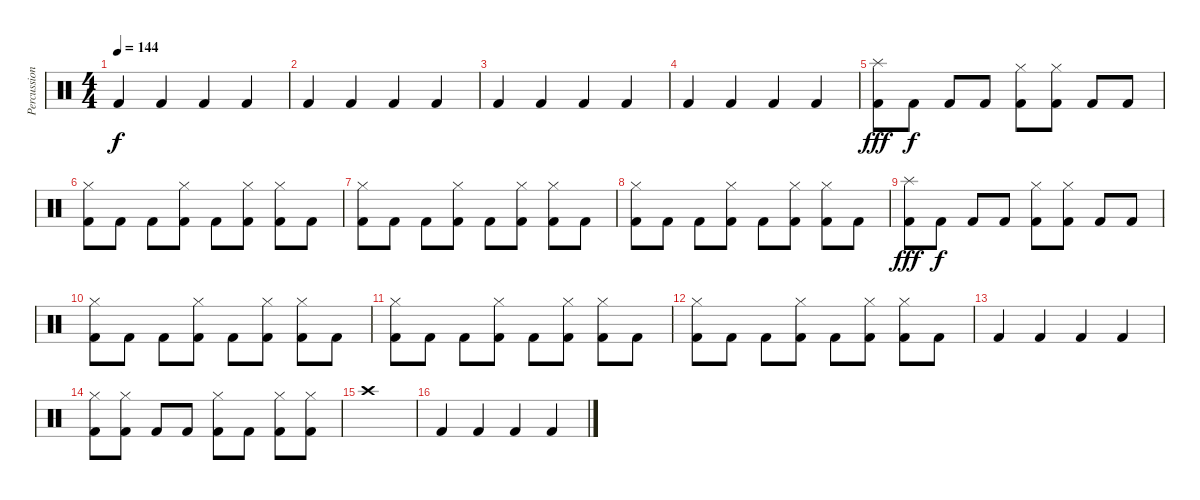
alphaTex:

\track ("Percussion" "Percussion") {instrument percussion}
\staff {score}
\articulation defaults
\ts (4 4)
\tempo 144
\clef neutral
\ks c "Kick (hit) 2".4{dy f} "Kick (hit) 2".4 "Kick (hit) 2".4 "Kick (hit) 2".4
|
"Kick (hit) 2".4 "Kick (hit) 2".4 "Kick (hit) 2".4 "Kick (hit) 2".4 |
"Kick (hit) 2".4 "Kick (hit) 2".4 "Kick (hit) 2".4 "Kick (hit) 2".4 |
"Kick (hit) 2".4 "Kick (hit) 2".4 "Kick (hit) 2".4 "Kick (hit) 2".4 |
("Splash (hit)" "Kick (hit) 2").8{dy fff} "Kick (hit) 2".8{dy f} "Kick (hit) 2".8 "Kick (hit) 2".8 ("Hi-Hat (closed)" "Kick (hit) 2").8 ("Hi-Hat (closed)" "Kick (hit) 2").8 "Kick (hit) 2".8 "Kick (hit) 2".8 |
("Hi-Hat (closed)" "Kick (hit) 2").8 "Kick (hit) 2".8 "Kick (hit) 2".8 ("Hi-Hat (closed)" "Kick (hit) 2").8 "Kick (hit) 2".8 ("Hi-Hat (closed)" "Kick (hit) 2").8 ("Hi-Hat (closed)" "Kick (hit) 2").8 "Kick (hit) 2".8 |
("Hi-Hat (closed)" "Kick (hit) 2").8 "Kick (hit) 2".8 "Kick (hit) 2".8 ("Hi-Hat (closed)" "Kick (hit) 2").8 "Kick (hit) 2".8 ("Hi-Hat (closed)" "Kick (hit) 2").8 ("Hi-Hat (closed)" "Kick (hit) 2").8 "Kick (hit) 2".8 |
("Hi-Hat (closed)" "Kick (hit) 2").8 "Kick (hit) 2".8 "Kick (hit) 2".8 ("Hi-Hat (closed)" "Kick (hit) 2").8 "Kick (hit) 2".8 ("Hi-Hat (closed)" "Kick (hit) 2").8 ("Hi-Hat (closed)" "Kick (hit) 2").8 "Kick (hit) 2".8 |
("Splash (hit)" "Kick (hit) 2").8{dy fff} "Kick (hit) 2".8{dy f} "Kick (hit) 2".8 "Kick (hit) 2".8 ("Hi-Hat (closed)" "Kick (hit) 2").8 ("Hi-Hat (closed)" "Kick (hit) 2").8 "Kick (hit) 2".8 "Kick (hit) 2".8 |
("Hi-Hat (closed)" "Kick (hit) 2").8 "Kick (hit) 2".8 "Kick (hit) 2".8 ("Hi-Hat (closed)" "Kick (hit) 2").8 "Kick (hit) 2".8 ("Hi-Hat (closed)" "Kick (hit) 2").8 ("Hi-Hat (closed)" "Kick (hit) 2").8 "Kick (hit) 2".8 |
("Hi-Hat (closed)" "Kick (hit) 2").8 "Kick (hit) 2".8 "Kick (hit) 2".8 ("Hi-Hat (closed)" "Kick (hit) 2").8 "Kick (hit) 2".8 ("Hi-Hat (closed)" "Kick (hit) 2").8 ("Hi-Hat (closed)" "Kick (hit) 2").8 "Kick (hit) 2".8 |
("Hi-Hat (closed)" "Kick (hit) 2").8 "Kick (hit) 2".8 "Kick (hit) 2".8 ("Hi-Hat (closed)" "Kick (hit) 2").8 "Kick (hit) 2".8 ("Hi-Hat (closed)" "Kick (hit) 2").8 ("Hi-Hat (closed)" "Kick (hit) 2").8 "Kick (hit) 2".8 |
"Kick (hit) 2".4 "Kick (hit) 2".4 "Kick (hit) 2".4 "Kick (hit) 2".4 |
("Hi-Hat (closed)" "Kick (hit) 2").8 ("Hi-Hat (closed)" "Kick (hit) 2").8 "Kick (hit) 2".8 "Kick (hit) 2".8 ("Hi-Hat (closed)" "Kick (hit) 2").8 "Kick (hit) 2".8 ("Hi-Hat (closed)" "Kick (hit) 2").8 ("Hi-Hat (closed)" "Kick (hit) 2").8 |
"Crash high (hit)".1 |
"Kick (hit) 2".4 "Kick (hit) 2".4 "Kick (hit) 2".4 "Kick (hit) 2".4
